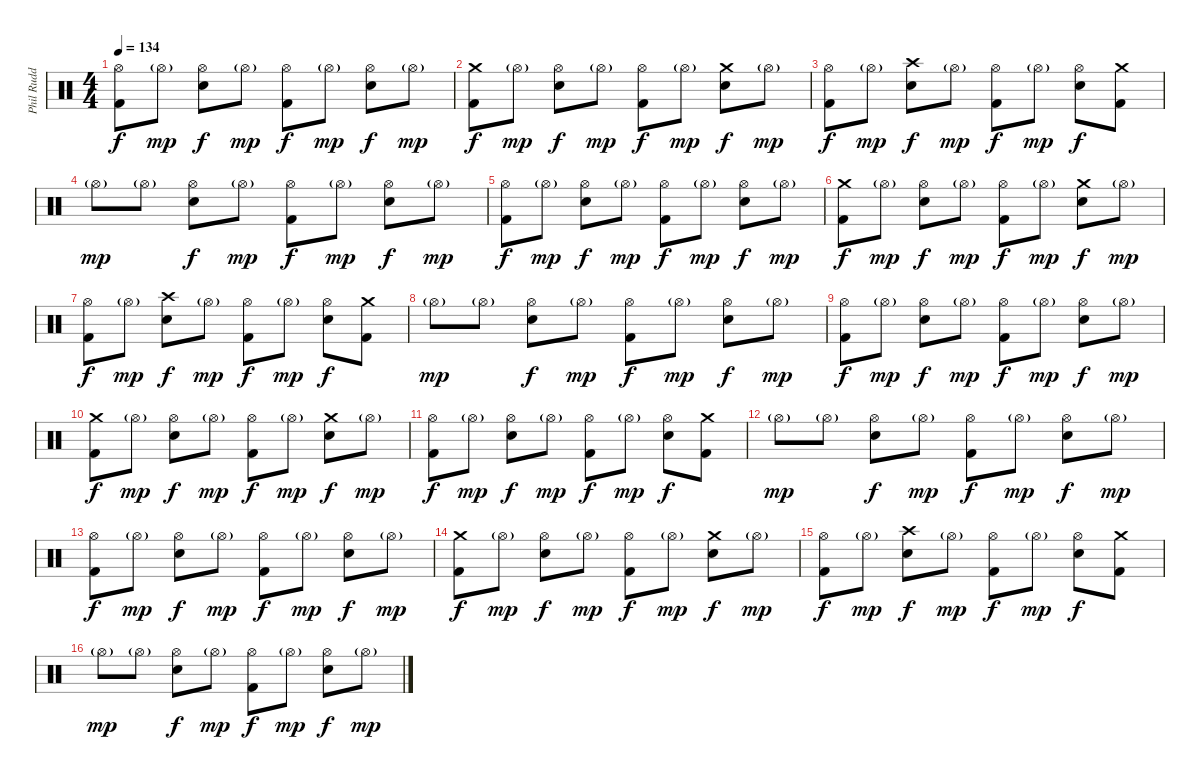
\track ("Phil Rudd" "Phil Rudd") {instrument percussion}
\staff {score}
\articulation defaults
\ts (4 4)
\tempo 134
\clef neutral
\ks c
("Hi-Hat (open)" "Kick (hit) 2").8{dy f} "Hi-Hat (open)"{g}.8{dy mp} ("Hi-Hat (open)" "Snare (hit) 2").8{dy f} "Hi-Hat (open)"{g}.8{dy mp} ("Hi-Hat (open)" "Kick (hit) 2").8{dy f} "Hi-Hat (open)"{g}.8{dy mp} ("Hi-Hat (open)" "Snare (hit) 2").8{dy f} "Hi-Hat (open)"{g}.8{dy mp} |
("Crash medium (hit)" "Kick (hit) 2").8{dy f} "Hi-Hat (open)"{g}.8{dy mp} ("Hi-Hat (open)" "Snare (hit) 2").8{dy f} "Hi-Hat (open)"{g}.8{dy mp} ("Hi-Hat (open)" "Kick (hit) 2").8{dy f} "Hi-Hat (open)"{g}.8{dy mp} ("Crash medium (hit)" "Snare (hit) 2").8{dy f} "Hi-Hat (open)"{g}.8{dy mp} |
("Hi-Hat (open)" "Kick (hit) 2").8{dy f} "Hi-Hat (open)"{g}.8{dy mp} ("Crash high (hit)" "Snare (hit) 2").8{dy f} "Hi-Hat (open)"{g}.8{dy mp} ("Hi-Hat (open)" "Kick (hit) 2").8{dy f} "Hi-Hat (open)"{g}.8{dy mp} ("Hi-Hat (open)" "Snare (hit) 2").8{dy f} ("Crash medium (hit)" "Kick (hit) 2").8 |
"Hi-Hat (open)"{g}.8{dy mp} "Hi-Hat (open)"{g}.8 ("Hi-Hat (open)" "Snare (hit) 2").8{dy f} "Hi-Hat (open)"{g}.8{dy mp} ("Hi-Hat (open)" "Kick (hit) 2").8{dy f} "Hi-Hat (open)"{g}.8{dy mp} ("Hi-Hat (open)" "Snare (hit) 2").8{dy f} "Hi-Hat (open)"{g}.8{dy mp} |
("Hi-Hat (open)" "Kick (hit) 2").8{dy f} "Hi-Hat (open)"{g}.8{dy mp} ("Hi-Hat (open)" "Snare (hit) 2").8{dy f} "Hi-Hat (open)"{g}.8{dy mp} ("Hi-Hat (open)" "Kick (hit) 2").8{dy f} "Hi-Hat (open)"{g}.8{dy mp} ("Hi-Hat (open)" "Snare (hit) 2").8{dy f} "Hi-Hat (open)"{g}.8{dy mp} |
("Crash medium (hit)" "Kick (hit) 2").8{dy f} "Hi-Hat (open)"{g}.8{dy mp} ("Hi-Hat (open)" "Snare (hit) 2").8{dy f} "Hi-Hat (open)"{g}.8{dy mp} ("Hi-Hat (open)" "Kick (hit) 2").8{dy f} "Hi-Hat (open)"{g}.8{dy mp} ("Crash medium (hit)" "Snare (hit) 2").8{dy f} "Hi-Hat (open)"{g}.8{dy mp} |
("Hi-Hat (open)" "Kick (hit) 2").8{dy f} "Hi-Hat (open)"{g}.8{dy mp} ("Crash high (hit)" "Snare (hit) 2").8{dy f} "Hi-Hat (open)"{g}.8{dy mp} ("Hi-Hat (open)" "Kick (hit) 2").8{dy f} "Hi-Hat (open)"{g}.8{dy mp} ("Hi-Hat (open)" "Snare (hit) 2").8{dy f} ("Crash medium (hit)" "Kick (hit) 2").8 |
"Hi-Hat (open)"{g}.8{dy mp} "Hi-Hat (open)"{g}.8 ("Hi-Hat (open)" "Snare (hit) 2").8{dy f} "Hi-Hat (open)"{g}.8{dy mp} ("Hi-Hat (open)" "Kick (hit) 2").8{dy f} "Hi-Hat (open)"{g}.8{dy mp} ("Hi-Hat (open)" "Snare (hit) 2").8{dy f} "Hi-Hat (open)"{g}.8{dy mp} |
("Hi-Hat (open)" "Kick (hit) 2").8{dy f} "Hi-Hat (open)"{g}.8{dy mp} ("Hi-Hat (open)" "Snare (hit) 2").8{dy f} "Hi-Hat (open)"{g}.8{dy mp} ("Hi-Hat (open)" "Kick (hit) 2").8{dy f} "Hi-Hat (open)"{g}.8{dy mp} ("Hi-Hat (open)" "Snare (hit) 2").8{dy f} "Hi-Hat (open)"{g}.8{dy mp} |
("Crash medium (hit)" "Kick (hit) 2").8{dy f} "Hi-Hat (open)"{g}.8{dy mp} ("Hi-Hat (open)" "Snare (hit) 2").8{dy f} "Hi-Hat (open)"{g}.8{dy mp} ("Hi-Hat (open)" "Kick (hit) 2").8{dy f} "Hi-Hat (open)"{g}.8{dy mp} ("Crash medium (hit)" "Snare (hit) 2").8{dy f} "Hi-Hat (open)"{g}.8{dy mp} |
("Hi-Hat (open)" "Kick (hit) 2").8{dy f} "Hi-Hat (open)"{g}.8{dy mp} ("Hi-Hat (open)" "Snare (hit) 2").8{dy f} "Hi-Hat (open)"{g}.8{dy mp} ("Hi-Hat (open)" "Kick (hit) 2").8{dy f} "Hi-Hat (open)"{g}.8{dy mp} ("Hi-Hat (open)" "Snare (hit) 2").8{dy f} ("Crash medium (hit)" "Kick (hit) 2").8 |
"Hi-Hat (open)"{g}.8{dy mp} "Hi-Hat (open)"{g}.8 ("Hi-Hat (open)" "Snare (hit) 2").8{dy f} "Hi-Hat (open)"{g}.8{dy mp} ("Hi-Hat (open)" "Kick (hit) 2").8{dy f} "Hi-Hat (open)"{g}.8{dy mp} ("Hi-Hat (open)" "Snare (hit) 2").8{dy f} "Hi-Hat (open)"{g}.8{dy mp} |
("Hi-Hat (open)" "Kick (hit) 2").8{dy f} "Hi-Hat (open)"{g}.8{dy mp} ("Hi-Hat (open)" "Snare (hit) 2").8{dy f} "Hi-Hat (open)"{g}.8{dy mp} ("Hi-Hat (open)" "Kick (hit) 2").8{dy f} "Hi-Hat (open)"{g}.8{dy mp} ("Hi-Hat (open)" "Snare (hit) 2").8{dy f} "Hi-Hat (open)"{g}.8{dy mp} |
("Crash medium (hit)" "Kick (hit) 2").8{dy f} "Hi-Hat (open)"{g}.8{dy mp} ("Hi-Hat (open)" "Snare (hit) 2").8{dy f} "Hi-Hat (open)"{g}.8{dy mp} ("Hi-Hat (open)" "Kick (hit) 2").8{dy f} "Hi-Hat (open)"{g}.8{dy mp} ("Crash medium (hit)" "Snare (hit) 2").8{dy f} "Hi-Hat (open)"{g}.8{dy mp} |
("Hi-Hat (open)" "Kick (hit) 2").8{dy f} "Hi-Hat (open)"{g}.8{dy mp} ("Crash high (hit)" "Snare (hit) 2").8{dy f} "Hi-Hat (open)"{g}.8{dy mp} ("Hi-Hat (open)" "Kick (hit) 2").8{dy f} "Hi-Hat (open)"{g}.8{dy mp} ("Hi-Hat (open)" "Snare (hit) 2").8{dy f} ("Crash medium (hit)" "Kick (hit) 2").8 |
"Hi-Hat (open)"{g}.8{dy mp} "Hi-Hat (open)"{g}.8 ("Hi-Hat (open)" "Snare (hit) 2").8{dy f} "Hi-Hat (open)"{g}.8{dy mp} ("Hi-Hat (open)" "Kick (hit) 2").8{dy f} "Hi-Hat (open)"{g}.8{dy mp} ("Hi-Hat (open)" "Snare (hit) 2").8{dy f} "Hi-Hat (open)"{g}.8{dy mp}
